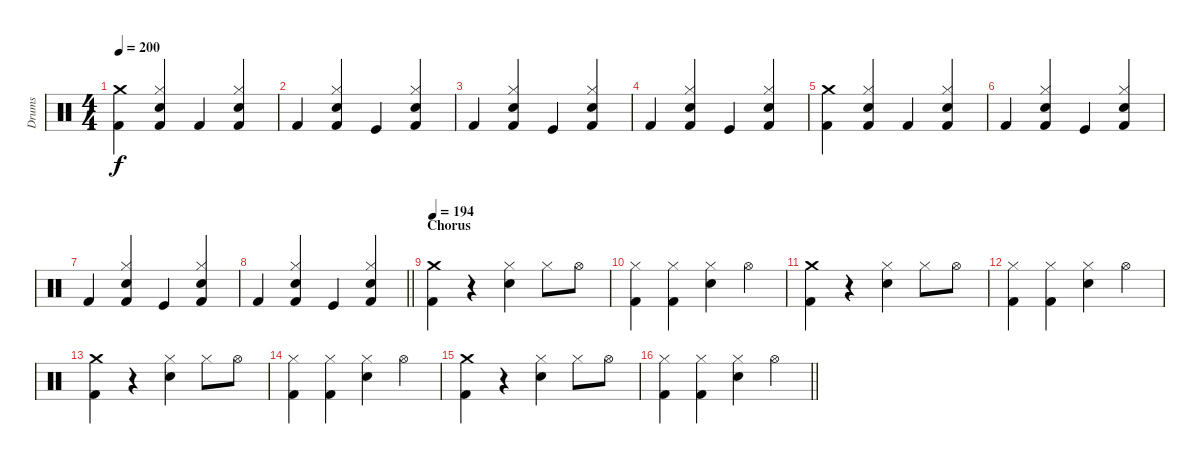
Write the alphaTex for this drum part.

\track ("Drums" "Drums") {instrument percussion}
\staff {score}
\articulation defaults
\ts (4 4)
\tempo 200
\clef neutral
\ks c
("Crash medium (hit)" "Kick (hit) 2").4{dy f} ("Hi-Hat (closed)" "Snare (hit) 2" "Kick (hit) 2").4 "Kick (hit) 2".4 ("Hi-Hat (closed)" "Snare (hit) 2" "Kick (hit) 2").4 |
"Kick (hit) 2".4 ("Hi-Hat (closed)" "Snare (hit) 2" "Kick (hit) 2").4 "Kick (hit)".4 ("Hi-Hat (closed)" "Snare (hit) 2" "Kick (hit) 2").4 |
"Kick (hit) 2".4 ("Hi-Hat (closed)" "Snare (hit) 2" "Kick (hit) 2").4 "Kick (hit)".4 ("Hi-Hat (closed)" "Snare (hit) 2" "Kick (hit) 2").4 |
"Kick (hit) 2".4 ("Hi-Hat (closed)" "Snare (hit) 2" "Kick (hit) 2").4 "Kick (hit)".4 ("Hi-Hat (closed)" "Snare (hit) 2" "Kick (hit) 2").4 |
("Crash medium (hit)" "Kick (hit) 2").4 ("Hi-Hat (closed)" "Snare (hit) 2" "Kick (hit) 2").4 "Kick (hit) 2".4 ("Hi-Hat (closed)" "Snare (hit) 2" "Kick (hit) 2").4 |
"Kick (hit) 2".4 ("Hi-Hat (closed)" "Snare (hit) 2" "Kick (hit) 2").4 "Kick (hit)".4 ("Hi-Hat (closed)" "Snare (hit) 2" "Kick (hit) 2").4 |
"Kick (hit) 2".4 ("Hi-Hat (closed)" "Snare (hit) 2" "Kick (hit) 2").4 "Kick (hit)".4 ("Hi-Hat (closed)" "Snare (hit) 2" "Kick (hit) 2").4 |
\barLineRight lightlight "Kick (hit) 2".4
("Hi-Hat (closed)" "Snare (hit) 2" "Kick (hit) 2").4 "Kick (hit)".4 ("Hi-Hat (closed)" "Snare (hit) 2" "Kick (hit) 2").4 |
\section ("" "Chorus")
\tempo 194
("Crash medium (hit)" "Kick (hit) 2").4{volume 5} r.4 ("Hi-Hat (closed)" "Electric Snare (hit)").4 "Hi-Hat (closed)".8 "Hi-Hat (open)".8 |
("Hi-Hat (closed)" "Kick (hit) 2").4 ("Hi-Hat (closed)" "Kick (hit) 2").4 ("Hi-Hat (closed)" "Electric Snare (hit)").4 "Hi-Hat (open)".4 |
("Crash medium (hit)" "Kick (hit) 2").4 r.4 ("Hi-Hat (closed)" "Electric Snare (hit)").4 "Hi-Hat (closed)".8 "Hi-Hat (open)".8 |
("Hi-Hat (closed)" "Kick (hit) 2").4 ("Hi-Hat (closed)" "Kick (hit) 2").4 ("Hi-Hat (closed)" "Electric Snare (hit)").4 "Hi-Hat (open)".4 |
("Crash medium (hit)" "Kick (hit) 2").4{volume 5} r.4 ("Hi-Hat (closed)" "Electric Snare (hit)").4 "Hi-Hat (closed)".8 "Hi-Hat (open)".8 |
("Hi-Hat (closed)" "Kick (hit) 2").4 ("Hi-Hat (closed)" "Kick (hit) 2").4 ("Hi-Hat (closed)" "Electric Snare (hit)").4 "Hi-Hat (open)".4 |
("Crash medium (hit)" "Kick (hit) 2").4 r.4 ("Hi-Hat (closed)" "Electric Snare (hit)").4 "Hi-Hat (closed)".8 "Hi-Hat (open)".8 |
\barLineRight lightlight
("Hi-Hat (closed)" "Kick (hit) 2").4 ("Hi-Hat (closed)" "Kick (hit) 2").4 ("Hi-Hat (closed)" "Electric Snare (hit)").4 "Hi-Hat (open)".4
